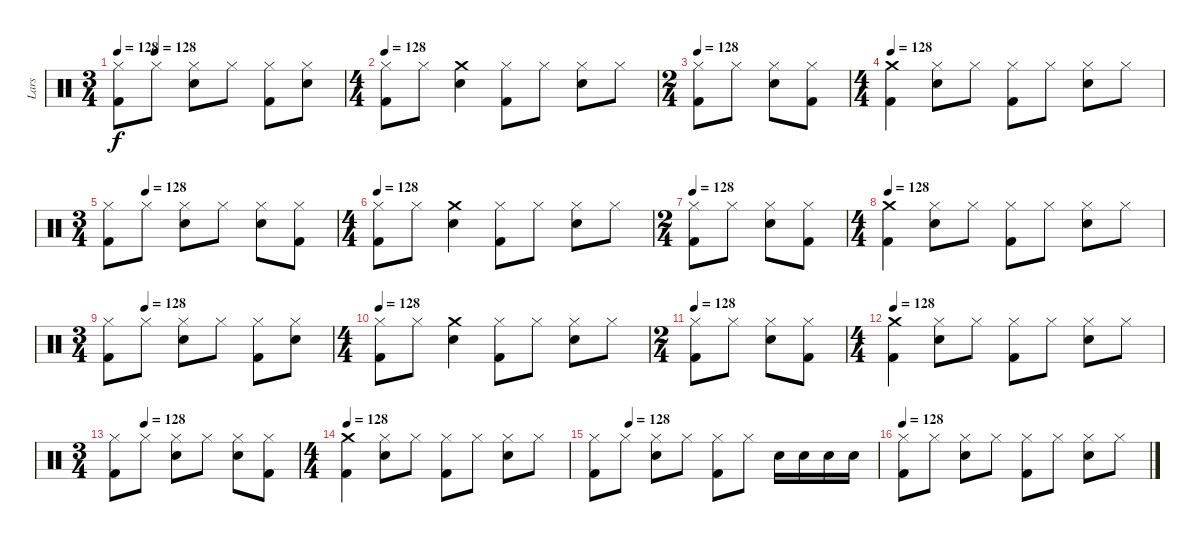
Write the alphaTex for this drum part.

\track ("Lars" "Lars") {instrument percussion}
\staff {score}
\articulation defaults
\ts (3 4)
\tempo 128
\tempo (128 0.16666666666666666)
\clef neutral
\ks c
("Kick (hit) 2" "Hi-Hat (closed)").8{dy f} "Hi-Hat (closed)".8 ("Snare (hit) 2" "Hi-Hat (closed)").8 "Hi-Hat (closed)".8 ("Kick (hit) 2" "Hi-Hat (closed)").8 ("Snare (hit) 2" "Hi-Hat (closed)").8 |
\ts (4 4)
\tempo 128
("Hi-Hat (closed)" "Kick (hit) 2").8 "Hi-Hat (closed)".8 ("Snare (hit) 2" "Crash medium (hit)").4 ("Hi-Hat (closed)" "Kick (hit) 2").8 "Hi-Hat (closed)".8 ("Snare (hit) 2" "Hi-Hat (closed)").8 "Hi-Hat (closed)".8 |
\ts (2 4)
\tempo 128
("Kick (hit) 2" "Hi-Hat (closed)").8 "Hi-Hat (closed)".8 ("Snare (hit) 2" "Hi-Hat (closed)").8 ("Kick (hit) 2" "Hi-Hat (closed)").8 |
\ts (4 4)
\tempo 128
("Crash medium (hit)" "Kick (hit) 2").4 ("Snare (hit) 2" "Hi-Hat (closed)").8 "Hi-Hat (closed)".8 ("Hi-Hat (closed)" "Kick (hit) 2").8 "Hi-Hat (closed)".8 ("Snare (hit) 2" "Hi-Hat (closed)").8 "Hi-Hat (closed)".8 |
\ts (3 4)
\tempo (128 0.16666666666666666)
("Kick (hit) 2" "Hi-Hat (closed)").8 "Hi-Hat (closed)".8 ("Snare (hit) 2" "Hi-Hat (closed)").8 "Hi-Hat (closed)".8 ("Hi-Hat (closed)" "Snare (hit) 2").8 ("Kick (hit) 2" "Hi-Hat (closed)").8 |
\ts (4 4)
\tempo 128
("Hi-Hat (closed)" "Kick (hit) 2").8 "Hi-Hat (closed)".8 ("Snare (hit) 2" "Crash medium (hit)").4 ("Hi-Hat (closed)" "Kick (hit) 2").8 "Hi-Hat (closed)".8 ("Snare (hit) 2" "Hi-Hat (closed)").8 "Hi-Hat (closed)".8 |
\ts (2 4)
\tempo 128
("Kick (hit) 2" "Hi-Hat (closed)").8 "Hi-Hat (closed)".8 ("Snare (hit) 2" "Hi-Hat (closed)").8 ("Kick (hit) 2" "Hi-Hat (closed)").8 |
\ts (4 4)
\tempo 128
("Crash medium (hit)" "Kick (hit) 2").4 ("Snare (hit) 2" "Hi-Hat (closed)").8 "Hi-Hat (closed)".8 ("Hi-Hat (closed)" "Kick (hit) 2").8 "Hi-Hat (closed)".8 ("Snare (hit) 2" "Hi-Hat (closed)").8 "Hi-Hat (closed)".8 |
\ts (3 4)
\tempo (128 0.16666666666666666)
("Kick (hit) 2" "Hi-Hat (closed)").8 "Hi-Hat (closed)".8 ("Snare (hit) 2" "Hi-Hat (closed)").8 "Hi-Hat (closed)".8 ("Kick (hit) 2" "Hi-Hat (closed)").8 ("Snare (hit) 2" "Hi-Hat (closed)").8 |
\ts (4 4)
\tempo 128
("Hi-Hat (closed)" "Kick (hit) 2").8 "Hi-Hat (closed)".8 ("Snare (hit) 2" "Crash medium (hit)").4 ("Hi-Hat (closed)" "Kick (hit) 2").8 "Hi-Hat (closed)".8 ("Snare (hit) 2" "Hi-Hat (closed)").8 "Hi-Hat (closed)".8 |
\ts (2 4)
\tempo 128
("Kick (hit) 2" "Hi-Hat (closed)").8 "Hi-Hat (closed)".8 ("Snare (hit) 2" "Hi-Hat (closed)").8 ("Kick (hit) 2" "Hi-Hat (closed)").8 |
\ts (4 4)
\tempo 128
("Crash medium (hit)" "Kick (hit) 2").4 ("Snare (hit) 2" "Hi-Hat (closed)").8 "Hi-Hat (closed)".8 ("Hi-Hat (closed)" "Kick (hit) 2").8 "Hi-Hat (closed)".8 ("Snare (hit) 2" "Hi-Hat (closed)").8 "Hi-Hat (closed)".8 |
\ts (3 4)
\tempo (128 0.16666666666666666)
("Kick (hit) 2" "Hi-Hat (closed)").8 "Hi-Hat (closed)".8 ("Snare (hit) 2" "Hi-Hat (closed)").8 "Hi-Hat (closed)".8 ("Hi-Hat (closed)" "Snare (hit) 2").8 ("Kick (hit) 2" "Hi-Hat (closed)").8 |
\ts (4 4)
\tempo 128
("Kick (hit) 2" "Crash medium (hit)").4 ("Hi-Hat (closed)" "Snare (hit) 2").8 "Hi-Hat (closed)".8 ("Hi-Hat (closed)" "Kick (hit) 2").8 "Hi-Hat (closed)".8 ("Snare (hit) 2" "Hi-Hat (closed)").8 "Hi-Hat (closed)".8 |
\tempo (128 0.125)
("Hi-Hat (closed)" "Kick (hit) 2").8 "Hi-Hat (closed)".8 ("Snare (hit) 2" "Hi-Hat (closed)").8 "Hi-Hat (closed)".8 ("Hi-Hat (closed)" "Kick (hit) 2").8 "Hi-Hat (closed)".8 "Snare (hit) 2".16 "Snare (hit) 2".16 "Snare (hit) 2".16 "Snare (hit) 2".16 |
\tempo 128
("Hi-Hat (closed)" "Kick (hit) 2").8 "Hi-Hat (closed)".8 ("Snare (hit) 2" "Hi-Hat (closed)").8 "Hi-Hat (closed)".8 ("Hi-Hat (closed)" "Kick (hit) 2").8 "Hi-Hat (closed)".8 ("Snare (hit) 2" "Hi-Hat (closed)").8 "Hi-Hat (closed)".8
